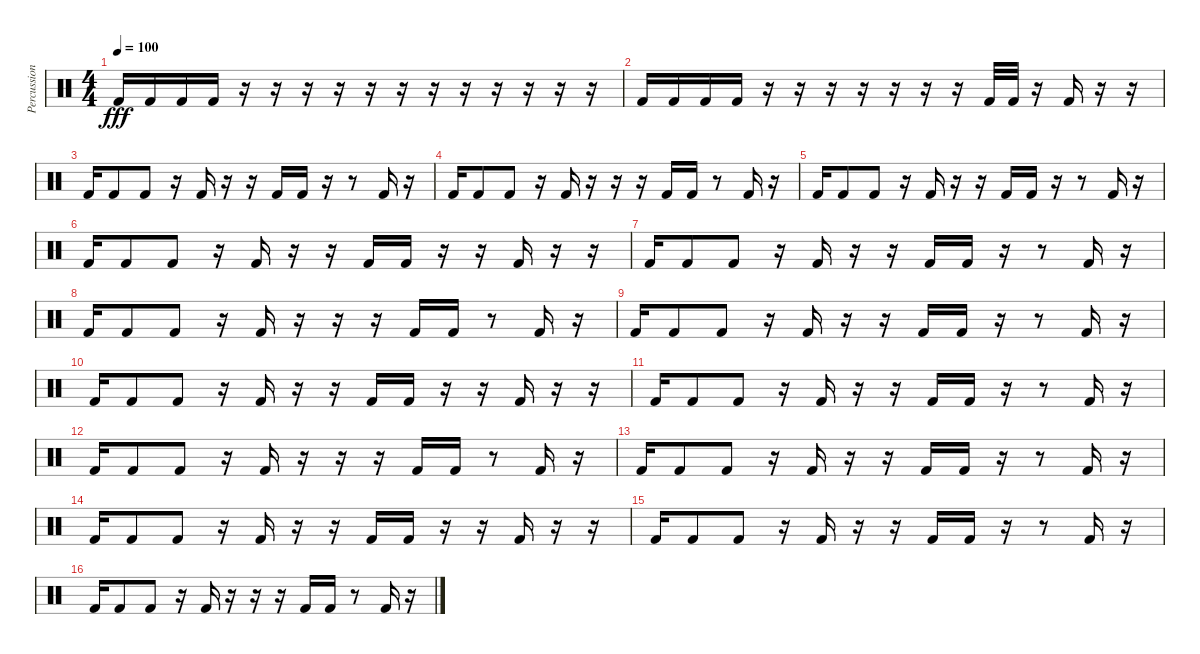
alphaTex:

\track ("Percussion" "Percussion") {instrument percussion}
\staff {score}
\articulation defaults
\ts (4 4)
\tempo 100
\clef neutral
\ks c "Kick (hit) 2".16{dy fff} "Kick (hit) 2".16 "Kick (hit) 2".16 "Kick (hit) 2".16
r.16 r.16 r.16 r.16 r.16 r.16 r.16 r.16 r.16 r.16 r.16 r.16 |
"Kick (hit) 2".16 "Kick (hit) 2".16 "Kick (hit) 2".16 "Kick (hit) 2".16 r.16 r.16 r.16 r.16 r.16 r.16 r.16 "Kick (hit) 2".32 "Kick (hit) 2".32 r.16 "Kick (hit) 2".16 r.16 r.16 |
"Kick (hit) 2".16 "Kick (hit) 2".8 "Kick (hit) 2".8 r.16 "Kick (hit) 2".16 r.16 r.16 "Kick (hit) 2".16 "Kick (hit) 2".16 r.16 r.8 "Kick (hit) 2".16 r.16 |
"Kick (hit) 2".16 "Kick (hit) 2".8 "Kick (hit) 2".8 r.16 "Kick (hit) 2".16 r.16 r.16 r.16 "Kick (hit) 2".16 "Kick (hit) 2".16 r.8 "Kick (hit) 2".16 r.16 |
"Kick (hit) 2".16 "Kick (hit) 2".8 "Kick (hit) 2".8 r.16 "Kick (hit) 2".16 r.16 r.16 "Kick (hit) 2".16 "Kick (hit) 2".16 r.16 r.8 "Kick (hit) 2".16 r.16 |
"Kick (hit) 2".16 "Kick (hit) 2".8 "Kick (hit) 2".8 r.16 "Kick (hit) 2".16 r.16 r.16 "Kick (hit) 2".16 "Kick (hit) 2".16 r.16 r.16 "Kick (hit) 2".16 r.16 r.16 |
"Kick (hit) 2".16 "Kick (hit) 2".8 "Kick (hit) 2".8 r.16 "Kick (hit) 2".16 r.16 r.16 "Kick (hit) 2".16 "Kick (hit) 2".16 r.16 r.8 "Kick (hit) 2".16 r.16 |
"Kick (hit) 2".16 "Kick (hit) 2".8 "Kick (hit) 2".8 r.16 "Kick (hit) 2".16 r.16 r.16 r.16 "Kick (hit) 2".16 "Kick (hit) 2".16 r.8 "Kick (hit) 2".16 r.16 |
"Kick (hit) 2".16 "Kick (hit) 2".8 "Kick (hit) 2".8 r.16 "Kick (hit) 2".16 r.16 r.16 "Kick (hit) 2".16 "Kick (hit) 2".16 r.16 r.8 "Kick (hit) 2".16 r.16 |
"Kick (hit) 2".16 "Kick (hit) 2".8 "Kick (hit) 2".8 r.16 "Kick (hit) 2".16 r.16 r.16 "Kick (hit) 2".16 "Kick (hit) 2".16 r.16 r.16 "Kick (hit) 2".16 r.16 r.16 |
"Kick (hit) 2".16 "Kick (hit) 2".8 "Kick (hit) 2".8 r.16 "Kick (hit) 2".16 r.16 r.16 "Kick (hit) 2".16 "Kick (hit) 2".16 r.16 r.8 "Kick (hit) 2".16 r.16 |
"Kick (hit) 2".16 "Kick (hit) 2".8 "Kick (hit) 2".8 r.16 "Kick (hit) 2".16 r.16 r.16 r.16 "Kick (hit) 2".16 "Kick (hit) 2".16 r.8 "Kick (hit) 2".16 r.16 |
"Kick (hit) 2".16 "Kick (hit) 2".8 "Kick (hit) 2".8 r.16 "Kick (hit) 2".16 r.16 r.16 "Kick (hit) 2".16 "Kick (hit) 2".16 r.16 r.8 "Kick (hit) 2".16 r.16 |
"Kick (hit) 2".16 "Kick (hit) 2".8 "Kick (hit) 2".8 r.16 "Kick (hit) 2".16 r.16 r.16 "Kick (hit) 2".16 "Kick (hit) 2".16 r.16 r.16 "Kick (hit) 2".16 r.16 r.16 |
"Kick (hit) 2".16 "Kick (hit) 2".8 "Kick (hit) 2".8 r.16 "Kick (hit) 2".16 r.16 r.16 "Kick (hit) 2".16 "Kick (hit) 2".16 r.16 r.8 "Kick (hit) 2".16 r.16 |
"Kick (hit) 2".16 "Kick (hit) 2".8 "Kick (hit) 2".8 r.16 "Kick (hit) 2".16 r.16 r.16 r.16 "Kick (hit) 2".16 "Kick (hit) 2".16 r.8 "Kick (hit) 2".16 r.16
